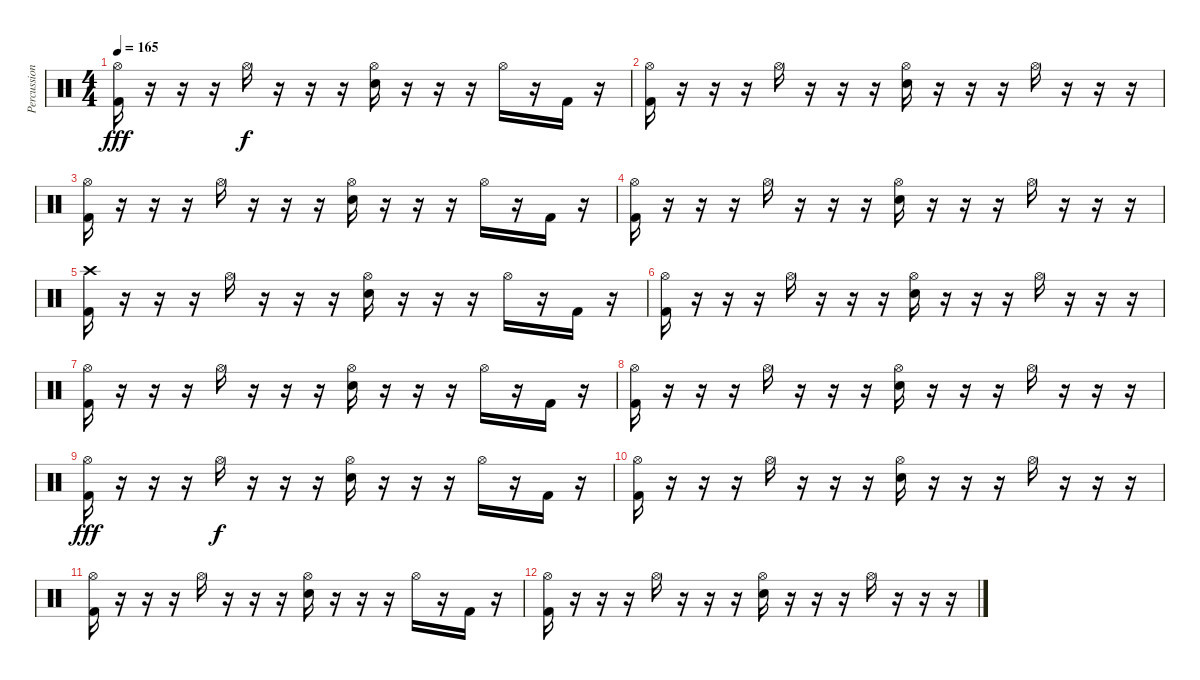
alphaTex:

\track ("Percussion" "Percussion") {instrument percussion}
\staff {score}
\articulation defaults
\ts (4 4)
\tempo 165
\clef neutral
\ks c
("Hi-Hat (open)" "Kick (hit) 2").16{dy fff} r.16 r.16 r.16 "Hi-Hat (open)".16{dy f} r.16 r.16 r.16 ("Hi-Hat (open)" "Snare (hit) 2").16 r.16 r.16 r.16 "Hi-Hat (open)".16 r.16 "Kick (hit) 2".16 r.16 |
("Hi-Hat (open)" "Kick (hit) 2").16 r.16 r.16 r.16 "Hi-Hat (open)".16 r.16 r.16 r.16 ("Hi-Hat (open)" "Snare (hit) 2").16 r.16 r.16 r.16 "Hi-Hat (open)".16 r.16 r.16 r.16 |
("Hi-Hat (open)" "Kick (hit) 2").16 r.16 r.16 r.16 "Hi-Hat (open)".16 r.16 r.16 r.16 ("Hi-Hat (open)" "Snare (hit) 2").16 r.16 r.16 r.16 "Hi-Hat (open)".16 r.16 "Kick (hit) 2".16 r.16 |
("Hi-Hat (open)" "Kick (hit) 2").16 r.16 r.16 r.16 "Hi-Hat (open)".16 r.16 r.16 r.16 ("Hi-Hat (open)" "Snare (hit) 2").16 r.16 r.16 r.16 "Hi-Hat (open)".16 r.16 r.16 r.16 |
("Crash high (hit)" "Kick (hit) 2").16 r.16 r.16 r.16 "Hi-Hat (open)".16 r.16 r.16 r.16 ("Hi-Hat (open)" "Snare (hit) 2").16 r.16 r.16 r.16 "Hi-Hat (open)".16 r.16 "Kick (hit) 2".16 r.16 |
("Hi-Hat (open)" "Kick (hit) 2").16 r.16 r.16 r.16 "Hi-Hat (open)".16 r.16 r.16 r.16 ("Hi-Hat (open)" "Snare (hit) 2").16 r.16 r.16 r.16 "Hi-Hat (open)".16 r.16 r.16 r.16 |
("Hi-Hat (open)" "Kick (hit) 2").16 r.16 r.16 r.16 "Hi-Hat (open)".16 r.16 r.16 r.16 ("Hi-Hat (open)" "Snare (hit) 2").16 r.16 r.16 r.16 "Hi-Hat (open)".16 r.16 "Kick (hit) 2".16 r.16 |
("Hi-Hat (open)" "Kick (hit) 2").16 r.16 r.16 r.16 "Hi-Hat (open)".16 r.16 r.16 r.16 ("Hi-Hat (open)" "Snare (hit) 2").16 r.16 r.16 r.16 "Hi-Hat (open)".16 r.16 r.16 r.16 |
("Hi-Hat (open)" "Kick (hit) 2").16{dy fff} r.16 r.16 r.16 "Hi-Hat (open)".16{dy f} r.16 r.16 r.16 ("Hi-Hat (open)" "Snare (hit) 2").16 r.16 r.16 r.16 "Hi-Hat (open)".16 r.16 "Kick (hit) 2".16 r.16 |
("Hi-Hat (open)" "Kick (hit) 2").16 r.16 r.16 r.16 "Hi-Hat (open)".16 r.16 r.16 r.16 ("Hi-Hat (open)" "Snare (hit) 2").16 r.16 r.16 r.16 "Hi-Hat (open)".16 r.16 r.16 r.16 |
("Hi-Hat (open)" "Kick (hit) 2").16 r.16 r.16 r.16 "Hi-Hat (open)".16 r.16 r.16 r.16 ("Hi-Hat (open)" "Snare (hit) 2").16 r.16 r.16 r.16 "Hi-Hat (open)".16 r.16 "Kick (hit) 2".16 r.16 |
("Hi-Hat (open)" "Kick (hit) 2").16 r.16 r.16 r.16 "Hi-Hat (open)".16 r.16 r.16 r.16 ("Hi-Hat (open)" "Snare (hit) 2").16 r.16 r.16 r.16 "Hi-Hat (open)".16 r.16 r.16 r.16
